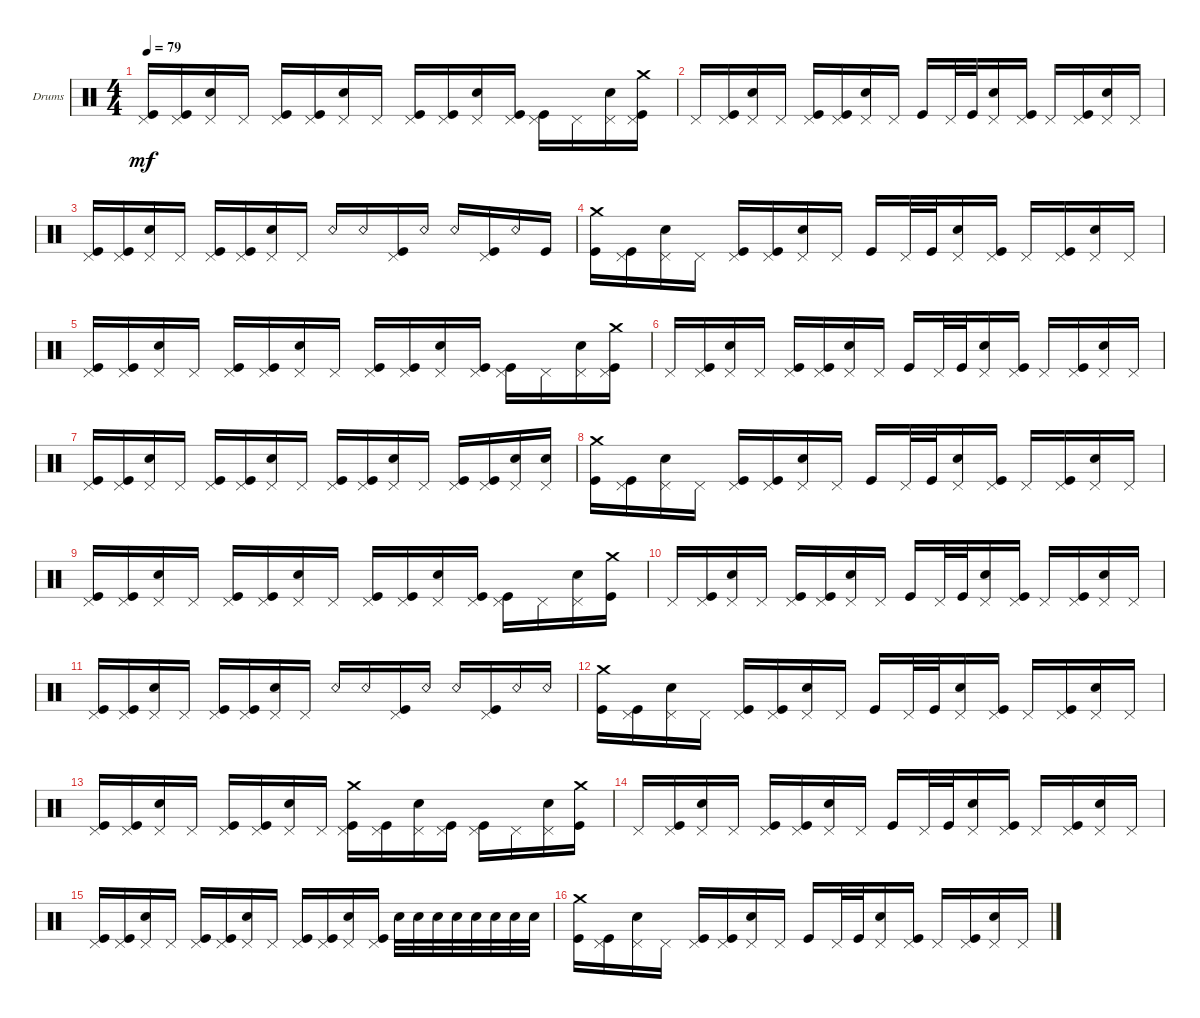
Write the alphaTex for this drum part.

\defaultSystemsLayout 4
\bracketExtendMode groupsimilarinstruments
\firstSystemTrackNameOrientation horizontal
\otherSystemsTrackNameOrientation horizontal
\track ("Drums" "Drums") {instrument percussion}
\staff {score}
\articulation defaults
\ts (4 4)
\tempo 79
\clef neutral
\ks c
("Kick (hit)" "Pedal Hi-Hat (hit)").16{dy mf} ("Pedal Hi-Hat (hit)" "Kick (hit)").16{beam merge} ("Pedal Hi-Hat (hit)" "Snare (hit) 2").16 "Pedal Hi-Hat (hit)".16 ("Pedal Hi-Hat (hit)" "Kick (hit)").16 ("Pedal Hi-Hat (hit)" "Kick (hit)").16{beam merge} ("Pedal Hi-Hat (hit)" "Snare (hit) 2").16 "Pedal Hi-Hat (hit)".16 ("Kick (hit)" "Pedal Hi-Hat (hit)").16 ("Pedal Hi-Hat (hit)" "Kick (hit)").16{beam merge} ("Pedal Hi-Hat (hit)" "Snare (hit) 2").16 ("Pedal Hi-Hat (hit)" "Kick (hit)").16 ("Pedal Hi-Hat (hit)" "Kick (hit)").16 "Pedal Hi-Hat (hit)".16{beam merge} ("Pedal Hi-Hat (hit)" "Snare (hit) 2").16 ("Pedal Hi-Hat (hit)" "Kick (hit)" "Crash medium (hit)").16 |
"Pedal Hi-Hat (hit)".16 ("Pedal Hi-Hat (hit)" "Kick (hit)").16{beam merge} ("Pedal Hi-Hat (hit)" "Snare (hit) 2").16 "Pedal Hi-Hat (hit)".16 ("Pedal Hi-Hat (hit)" "Kick (hit)").16 ("Pedal Hi-Hat (hit)" "Kick (hit)").16{beam merge} ("Pedal Hi-Hat (hit)" "Snare (hit) 2").16 "Pedal Hi-Hat (hit)".16 "Kick (hit)".16 "Pedal Hi-Hat (hit)".32 "Kick (hit)".32{beam merge} ("Pedal Hi-Hat (hit)" "Snare (hit) 2").16 ("Pedal Hi-Hat (hit)" "Kick (hit)").16 "Pedal Hi-Hat (hit)".16 ("Pedal Hi-Hat (hit)" "Kick (hit)").16{beam merge} ("Pedal Hi-Hat (hit)" "Snare (hit) 2").16 "Pedal Hi-Hat (hit)".16 |
("Kick (hit)" "Pedal Hi-Hat (hit)").16 ("Pedal Hi-Hat (hit)" "Kick (hit)").16{beam merge} ("Pedal Hi-Hat (hit)" "Snare (hit) 2").16 "Pedal Hi-Hat (hit)".16 ("Pedal Hi-Hat (hit)" "Kick (hit)").16 ("Pedal Hi-Hat (hit)" "Kick (hit)").16{beam merge} ("Pedal Hi-Hat (hit)" "Snare (hit) 2").16 "Pedal Hi-Hat (hit)".16 "Snare (rim shot)".16 "Snare (rim shot)".16{beam merge} ("Pedal Hi-Hat (hit)" "Kick (hit)").16 "Snare (rim shot)".16 "Snare (rim shot)".16 ("Pedal Hi-Hat (hit)" "Kick (hit)").16{beam merge} "Snare (rim shot)".16 "Kick (hit)".16 |
("Kick (hit)" "Crash medium (hit)").16 ("Pedal Hi-Hat (hit)" "Kick (hit)").16{beam merge} ("Pedal Hi-Hat (hit)" "Snare (hit) 2").16 "Pedal Hi-Hat (hit)".16 ("Pedal Hi-Hat (hit)" "Kick (hit)").16 ("Pedal Hi-Hat (hit)" "Kick (hit)").16{beam merge} ("Pedal Hi-Hat (hit)" "Snare (hit) 2").16 "Pedal Hi-Hat (hit)".16 "Kick (hit)".16 "Pedal Hi-Hat (hit)".32 "Kick (hit)".32{beam merge} ("Pedal Hi-Hat (hit)" "Snare (hit) 2").16 ("Pedal Hi-Hat (hit)" "Kick (hit)").16 "Pedal Hi-Hat (hit)".16 ("Pedal Hi-Hat (hit)" "Kick (hit)").16{beam merge} ("Pedal Hi-Hat (hit)" "Snare (hit) 2").16 "Pedal Hi-Hat (hit)".16 |
("Kick (hit)" "Pedal Hi-Hat (hit)").16 ("Pedal Hi-Hat (hit)" "Kick (hit)").16{beam merge} ("Pedal Hi-Hat (hit)" "Snare (hit) 2").16 "Pedal Hi-Hat (hit)".16 ("Pedal Hi-Hat (hit)" "Kick (hit)").16 ("Pedal Hi-Hat (hit)" "Kick (hit)").16{beam merge} ("Pedal Hi-Hat (hit)" "Snare (hit) 2").16 "Pedal Hi-Hat (hit)".16 ("Kick (hit)" "Pedal Hi-Hat (hit)").16 ("Pedal Hi-Hat (hit)" "Kick (hit)").16{beam merge} ("Pedal Hi-Hat (hit)" "Snare (hit) 2").16 ("Pedal Hi-Hat (hit)" "Kick (hit)").16 ("Pedal Hi-Hat (hit)" "Kick (hit)").16 "Pedal Hi-Hat (hit)".16{beam merge} ("Pedal Hi-Hat (hit)" "Snare (hit) 2").16 ("Pedal Hi-Hat (hit)" "Kick (hit)" "Crash medium (hit)").16 |
"Pedal Hi-Hat (hit)".16 ("Pedal Hi-Hat (hit)" "Kick (hit)").16{beam merge} ("Pedal Hi-Hat (hit)" "Snare (hit) 2").16 "Pedal Hi-Hat (hit)".16 ("Pedal Hi-Hat (hit)" "Kick (hit)").16 ("Pedal Hi-Hat (hit)" "Kick (hit)").16{beam merge} ("Pedal Hi-Hat (hit)" "Snare (hit) 2").16 "Pedal Hi-Hat (hit)".16 "Kick (hit)".16 "Pedal Hi-Hat (hit)".32 "Kick (hit)".32{beam merge} ("Pedal Hi-Hat (hit)" "Snare (hit) 2").16 ("Pedal Hi-Hat (hit)" "Kick (hit)").16 "Pedal Hi-Hat (hit)".16 ("Pedal Hi-Hat (hit)" "Kick (hit)").16{beam merge} ("Pedal Hi-Hat (hit)" "Snare (hit) 2").16 "Pedal Hi-Hat (hit)".16 |
("Kick (hit)" "Pedal Hi-Hat (hit)").16 ("Pedal Hi-Hat (hit)" "Kick (hit)").16{beam merge} ("Pedal Hi-Hat (hit)" "Snare (hit) 2").16 "Pedal Hi-Hat (hit)".16 ("Pedal Hi-Hat (hit)" "Kick (hit)").16 ("Pedal Hi-Hat (hit)" "Kick (hit)").16{beam merge} ("Pedal Hi-Hat (hit)" "Snare (hit) 2").16 "Pedal Hi-Hat (hit)".16 ("Kick (hit)" "Pedal Hi-Hat (hit)").16 ("Pedal Hi-Hat (hit)" "Kick (hit)").16{beam merge} ("Pedal Hi-Hat (hit)" "Snare (hit) 2").16 "Pedal Hi-Hat (hit)".16 ("Pedal Hi-Hat (hit)" "Kick (hit)").16 ("Pedal Hi-Hat (hit)" "Kick (hit)").16{beam merge} ("Pedal Hi-Hat (hit)" "Snare (hit) 2").16 ("Pedal Hi-Hat (hit)" "Snare (hit) 2").16 |
("Kick (hit)" "Crash medium (hit)").16 ("Pedal Hi-Hat (hit)" "Kick (hit)").16{beam merge} ("Pedal Hi-Hat (hit)" "Snare (hit) 2").16 "Pedal Hi-Hat (hit)".16 ("Pedal Hi-Hat (hit)" "Kick (hit)").16 ("Pedal Hi-Hat (hit)" "Kick (hit)").16{beam merge} ("Pedal Hi-Hat (hit)" "Snare (hit) 2").16 "Pedal Hi-Hat (hit)".16 "Kick (hit)".16 "Pedal Hi-Hat (hit)".32 "Kick (hit)".32{beam merge} ("Pedal Hi-Hat (hit)" "Snare (hit) 2").16 ("Pedal Hi-Hat (hit)" "Kick (hit)").16 "Pedal Hi-Hat (hit)".16 ("Pedal Hi-Hat (hit)" "Kick (hit)").16{beam merge} ("Pedal Hi-Hat (hit)" "Snare (hit) 2").16 "Pedal Hi-Hat (hit)".16 |
("Kick (hit)" "Pedal Hi-Hat (hit)").16 ("Pedal Hi-Hat (hit)" "Kick (hit)").16{beam merge} ("Pedal Hi-Hat (hit)" "Snare (hit) 2").16 "Pedal Hi-Hat (hit)".16 ("Pedal Hi-Hat (hit)" "Kick (hit)").16 ("Pedal Hi-Hat (hit)" "Kick (hit)").16{beam merge} ("Pedal Hi-Hat (hit)" "Snare (hit) 2").16 "Pedal Hi-Hat (hit)".16 ("Kick (hit)" "Pedal Hi-Hat (hit)").16 ("Pedal Hi-Hat (hit)" "Kick (hit)").16{beam merge} ("Pedal Hi-Hat (hit)" "Snare (hit) 2").16 ("Pedal Hi-Hat (hit)" "Kick (hit)").16 ("Pedal Hi-Hat (hit)" "Kick (hit)").16 "Pedal Hi-Hat (hit)".16{beam merge} ("Pedal Hi-Hat (hit)" "Snare (hit) 2").16 ("Kick (hit)" "Crash medium (hit)").16 |
"Pedal Hi-Hat (hit)".16 ("Pedal Hi-Hat (hit)" "Kick (hit)").16{beam merge} ("Pedal Hi-Hat (hit)" "Snare (hit) 2").16 "Pedal Hi-Hat (hit)".16 ("Pedal Hi-Hat (hit)" "Kick (hit)").16 ("Pedal Hi-Hat (hit)" "Kick (hit)").16{beam merge} ("Pedal Hi-Hat (hit)" "Snare (hit) 2").16 "Pedal Hi-Hat (hit)".16 "Kick (hit)".16 "Pedal Hi-Hat (hit)".32 "Kick (hit)".32{beam merge} ("Pedal Hi-Hat (hit)" "Snare (hit) 2").16 ("Pedal Hi-Hat (hit)" "Kick (hit)").16 "Pedal Hi-Hat (hit)".16 ("Pedal Hi-Hat (hit)" "Kick (hit)").16{beam merge} ("Pedal Hi-Hat (hit)" "Snare (hit) 2").16 "Pedal Hi-Hat (hit)".16 |
("Kick (hit)" "Pedal Hi-Hat (hit)").16 ("Pedal Hi-Hat (hit)" "Kick (hit)").16{beam merge} ("Pedal Hi-Hat (hit)" "Snare (hit) 2").16 "Pedal Hi-Hat (hit)".16 ("Pedal Hi-Hat (hit)" "Kick (hit)").16 ("Pedal Hi-Hat (hit)" "Kick (hit)").16{beam merge} ("Pedal Hi-Hat (hit)" "Snare (hit) 2").16 "Pedal Hi-Hat (hit)".16 "Snare (rim shot)".16 "Snare (rim shot)".16{beam merge} ("Pedal Hi-Hat (hit)" "Kick (hit)").16 "Snare (rim shot)".16 "Snare (rim shot)".16 ("Pedal Hi-Hat (hit)" "Kick (hit)").16{beam merge} "Snare (rim shot)".16 "Snare (rim shot)".16 |
("Kick (hit)" "Crash medium (hit)").16 ("Pedal Hi-Hat (hit)" "Kick (hit)").16{beam merge} ("Pedal Hi-Hat (hit)" "Snare (hit) 2").16 "Pedal Hi-Hat (hit)".16 ("Pedal Hi-Hat (hit)" "Kick (hit)").16 ("Pedal Hi-Hat (hit)" "Kick (hit)").16{beam merge} ("Pedal Hi-Hat (hit)" "Snare (hit) 2").16 "Pedal Hi-Hat (hit)".16 "Kick (hit)".16 "Pedal Hi-Hat (hit)".32 "Kick (hit)".32{beam merge} ("Pedal Hi-Hat (hit)" "Snare (hit) 2").16 ("Pedal Hi-Hat (hit)" "Kick (hit)").16 "Pedal Hi-Hat (hit)".16 ("Pedal Hi-Hat (hit)" "Kick (hit)").16{beam merge} ("Pedal Hi-Hat (hit)" "Snare (hit) 2").16 "Pedal Hi-Hat (hit)".16 |
("Kick (hit)" "Pedal Hi-Hat (hit)").16 ("Pedal Hi-Hat (hit)" "Kick (hit)").16{beam merge} ("Pedal Hi-Hat (hit)" "Snare (hit) 2").16 "Pedal Hi-Hat (hit)".16 ("Pedal Hi-Hat (hit)" "Kick (hit)").16 ("Pedal Hi-Hat (hit)" "Kick (hit)").16{beam merge} ("Pedal Hi-Hat (hit)" "Snare (hit) 2").16 "Pedal Hi-Hat (hit)".16 ("Kick (hit)" "Pedal Hi-Hat (hit)" "Crash medium (hit)").16 ("Pedal Hi-Hat (hit)" "Kick (hit)").16{beam merge} ("Pedal Hi-Hat (hit)" "Snare (hit) 2").16 ("Pedal Hi-Hat (hit)" "Kick (hit)").16 ("Pedal Hi-Hat (hit)" "Kick (hit)").16 "Pedal Hi-Hat (hit)".16{beam merge} ("Pedal Hi-Hat (hit)" "Snare (hit) 2").16 ("Kick (hit)" "Crash medium (hit)").16 |
"Pedal Hi-Hat (hit)".16 ("Pedal Hi-Hat (hit)" "Kick (hit)").16{beam merge} ("Pedal Hi-Hat (hit)" "Snare (hit) 2").16 "Pedal Hi-Hat (hit)".16 ("Pedal Hi-Hat (hit)" "Kick (hit)").16 ("Pedal Hi-Hat (hit)" "Kick (hit)").16{beam merge} ("Pedal Hi-Hat (hit)" "Snare (hit) 2").16 "Pedal Hi-Hat (hit)".16 "Kick (hit)".16 "Pedal Hi-Hat (hit)".32 "Kick (hit)".32{beam merge} ("Pedal Hi-Hat (hit)" "Snare (hit) 2").16 ("Pedal Hi-Hat (hit)" "Kick (hit)").16 "Pedal Hi-Hat (hit)".16 ("Pedal Hi-Hat (hit)" "Kick (hit)").16{beam merge} ("Pedal Hi-Hat (hit)" "Snare (hit) 2").16 "Pedal Hi-Hat (hit)".16 |
("Kick (hit)" "Pedal Hi-Hat (hit)").16 ("Pedal Hi-Hat (hit)" "Kick (hit)").16{beam merge} ("Pedal Hi-Hat (hit)" "Snare (hit) 2").16 "Pedal Hi-Hat (hit)".16 ("Pedal Hi-Hat (hit)" "Kick (hit)").16 ("Pedal Hi-Hat (hit)" "Kick (hit)").16{beam merge} ("Pedal Hi-Hat (hit)" "Snare (hit) 2").16 "Pedal Hi-Hat (hit)".16 ("Kick (hit)" "Pedal Hi-Hat (hit)").16 ("Pedal Hi-Hat (hit)" "Kick (hit)").16{beam merge} ("Pedal Hi-Hat (hit)" "Snare (hit) 2").16 ("Pedal Hi-Hat (hit)" "Kick (hit)").16 "Snare (hit) 2".32 "Snare (hit) 2".32{beam merge} "Snare (hit) 2".32{beam merge} "Snare (hit) 2".32{beam merge} "Snare (hit) 2".32{beam merge} "Snare (hit) 2".32 "Snare (hit) 2".32 "Snare (hit) 2".32 |
("Kick (hit)" "Crash medium (hit)").16 ("Pedal Hi-Hat (hit)" "Kick (hit)").16{beam merge} ("Pedal Hi-Hat (hit)" "Snare (hit) 2").16 "Pedal Hi-Hat (hit)".16 ("Pedal Hi-Hat (hit)" "Kick (hit)").16 ("Pedal Hi-Hat (hit)" "Kick (hit)").16{beam merge} ("Pedal Hi-Hat (hit)" "Snare (hit) 2").16 "Pedal Hi-Hat (hit)".16 "Kick (hit)".16 "Pedal Hi-Hat (hit)".32 "Kick (hit)".32{beam merge} ("Pedal Hi-Hat (hit)" "Snare (hit) 2").16 ("Pedal Hi-Hat (hit)" "Kick (hit)").16 "Pedal Hi-Hat (hit)".16 ("Pedal Hi-Hat (hit)" "Kick (hit)").16{beam merge} ("Pedal Hi-Hat (hit)" "Snare (hit) 2").16 "Pedal Hi-Hat (hit)".16
